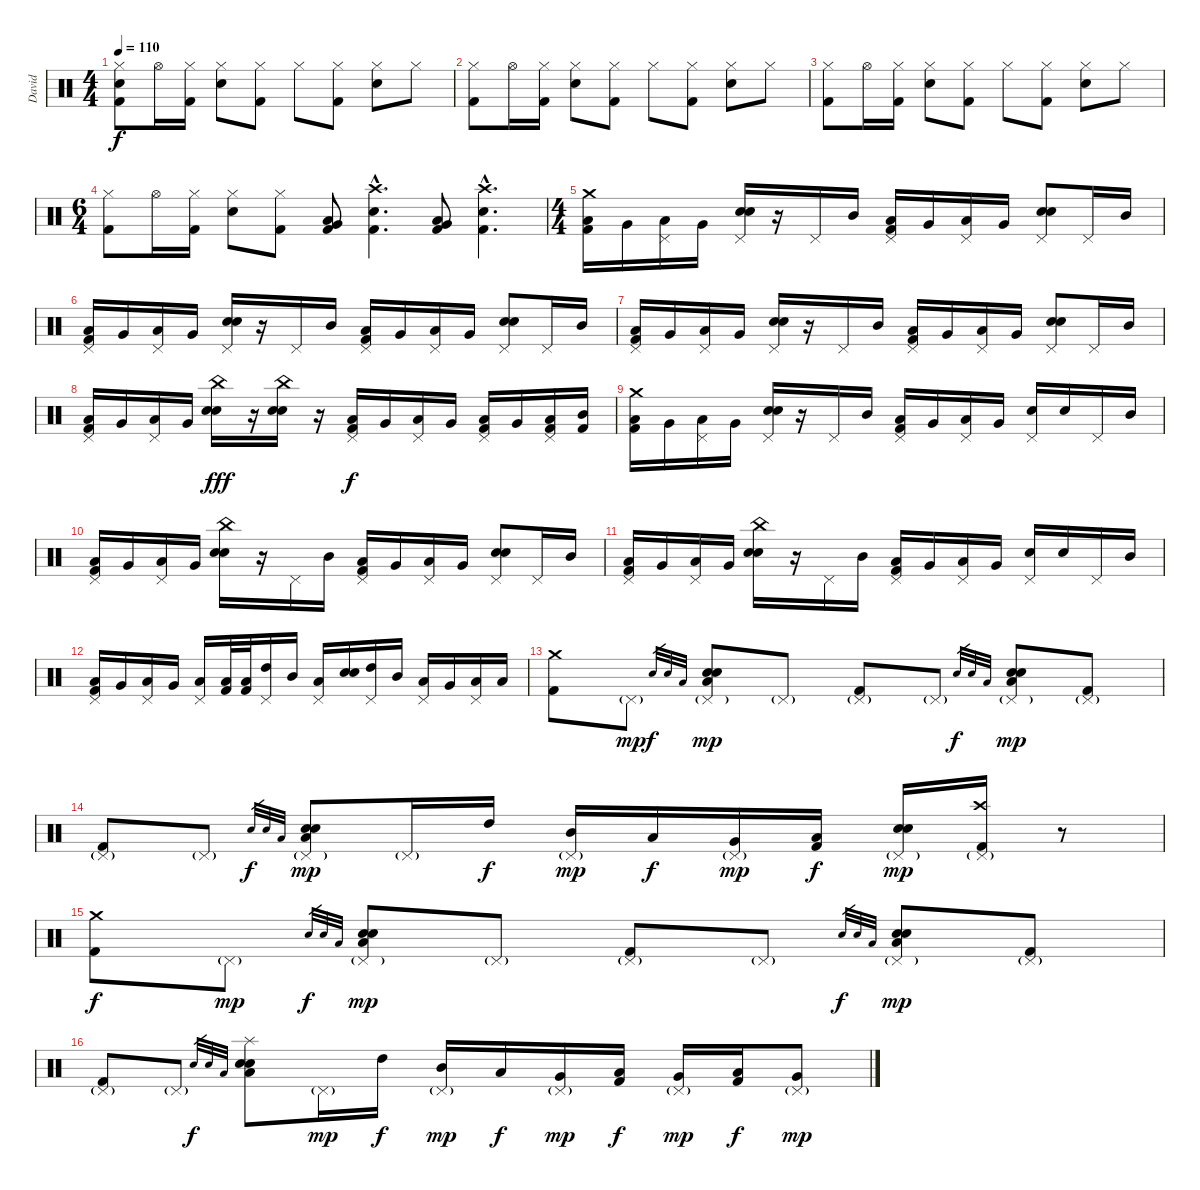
\track ("David" "David") {instrument percussion}
\staff {score}
\articulation defaults
\ts (4 4)
\tempo 110
\clef neutral
\ks c
("Hi-Hat (closed)" "Snare (hit) 2" "Kick (hit) 2").8{dy f} "Hi-Hat (open)".16 ("Hi-Hat (closed)" "Kick (hit) 2").16 ("Hi-Hat (closed)" "Snare (hit) 2").8 ("Hi-Hat (closed)" "Kick (hit) 2").8 "Hi-Hat (closed)".8 ("Hi-Hat (closed)" "Kick (hit) 2").8 ("Hi-Hat (closed)" "Snare (hit) 2").8 "Hi-Hat (closed)".8 |
("Hi-Hat (closed)" "Kick (hit) 2").8 "Hi-Hat (open)".16 ("Hi-Hat (closed)" "Kick (hit) 2").16 ("Hi-Hat (closed)" "Snare (hit) 2").8 ("Hi-Hat (closed)" "Kick (hit) 2").8 "Hi-Hat (closed)".8 ("Hi-Hat (closed)" "Kick (hit) 2").8 ("Hi-Hat (closed)" "Snare (hit) 2").8 "Hi-Hat (closed)".8 |
("Hi-Hat (closed)" "Kick (hit) 2").8 "Hi-Hat (open)".16 ("Hi-Hat (closed)" "Kick (hit) 2").16 ("Hi-Hat (closed)" "Snare (hit) 2").8 ("Hi-Hat (closed)" "Kick (hit) 2").8 "Hi-Hat (closed)".8 ("Hi-Hat (closed)" "Kick (hit) 2").8 ("Hi-Hat (closed)" "Snare (hit) 2").8 "Hi-Hat (closed)".8 |
\ts (6 4)
("Hi-Hat (closed)" "Kick (hit) 2").8 "Hi-Hat (open)".16 ("Hi-Hat (closed)" "Kick (hit) 2").16 ("Hi-Hat (closed)" "Snare (hit) 2").8 ("Hi-Hat (closed)" "Kick (hit) 2").8 ("Low Tom (hit)" "Very Low Tom (hit)" "Kick (hit) 2").8 ("Crash high (hit)"{hac} "Snare (hit) 2"{hac} "Kick (hit) 2"{hac}).4{d} ("Low Tom (hit)" "Very Low Tom (hit)" "Kick (hit) 2").8 ("Crash high (hit)"{hac} "Snare (hit) 2"{hac} "Kick (hit) 2"{hac}).4{d} |
\ts (4 4)
("Crash medium (hit)" "Low Tom (hit)" "Kick (hit) 2").16 "Very Low Tom (hit)".16 ("Pedal Hi-Hat (hit)" "Low Floor Tom (hit)").16 "Very Low Tom (hit)".16 ("Pedal Hi-Hat (hit)" "Snare (hit) 2" "Snare (hit) 2").16 r.16 "Pedal Hi-Hat (hit)".16 "Mid Tom (hit)".16 ("Pedal Hi-Hat (hit)" "Low Tom (hit)" "Kick (hit) 2").16 "Very Low Tom (hit)".16 ("Pedal Hi-Hat (hit)" "Low Floor Tom (hit)").16 "Very Low Tom (hit)".16 ("Pedal Hi-Hat (hit)" "Snare (hit) 2" "Snare (hit) 2").8 "Pedal Hi-Hat (hit)".16 "Mid Tom (hit)".16 |
("Pedal Hi-Hat (hit)" "Low Tom (hit)" "Kick (hit) 2").16 "Very Low Tom (hit)".16 ("Pedal Hi-Hat (hit)" "Low Floor Tom (hit)").16 "Very Low Tom (hit)".16 ("Pedal Hi-Hat (hit)" "Snare (hit) 2" "Snare (hit) 2").16 r.16 "Pedal Hi-Hat (hit)".16 "Mid Tom (hit)".16 ("Pedal Hi-Hat (hit)" "Low Tom (hit)" "Kick (hit) 2").16 "Very Low Tom (hit)".16 ("Pedal Hi-Hat (hit)" "Low Floor Tom (hit)").16 "Very Low Tom (hit)".16 ("Pedal Hi-Hat (hit)" "Snare (hit) 2" "Snare (hit) 2").8 "Pedal Hi-Hat (hit)".16 "Mid Tom (hit)".16 |
("Pedal Hi-Hat (hit)" "Low Tom (hit)" "Kick (hit) 2").16 "Very Low Tom (hit)".16 ("Pedal Hi-Hat (hit)" "Low Floor Tom (hit)").16 "Very Low Tom (hit)".16 ("Pedal Hi-Hat (hit)" "Snare (hit) 2" "Snare (hit) 2").16 r.16 "Pedal Hi-Hat (hit)".16 "Mid Tom (hit)".16 ("Pedal Hi-Hat (hit)" "Low Tom (hit)" "Kick (hit) 2").16 "Very Low Tom (hit)".16 ("Pedal Hi-Hat (hit)" "Low Floor Tom (hit)").16 "Very Low Tom (hit)".16 ("Pedal Hi-Hat (hit)" "Snare (hit) 2" "Snare (hit) 2").8 "Pedal Hi-Hat (hit)".16 "Mid Tom (hit)".16 |
("Pedal Hi-Hat (hit)" "Low Tom (hit)" "Kick (hit) 2").16 "Very Low Tom (hit)".16 ("Pedal Hi-Hat (hit)" "Low Floor Tom (hit)").16 "Very Low Tom (hit)".16 ("China (hit)" "Snare (hit) 2" "Snare (hit) 2").16{dy fff} r.16 ("China (hit)" "Snare (hit) 2" "Snare (hit) 2").16 r.16 ("Pedal Hi-Hat (hit)" "Low Tom (hit)" "Kick (hit) 2").16{dy f} "Very Low Tom (hit)".16 ("Pedal Hi-Hat (hit)" "Low Floor Tom (hit)").16 "Very Low Tom (hit)".16 ("Pedal Hi-Hat (hit)" "Low Floor Tom (hit)" "Kick (hit) 2").16 "Very Low Tom (hit)".16 ("Pedal Hi-Hat (hit)" "Low Tom (hit)" "Kick (hit) 2").16 ("Mid Tom (hit)" "Kick (hit) 2").16 |
("Crash medium (hit)" "Low Tom (hit)" "Kick (hit) 2").16 "Very Low Tom (hit)".16 ("Pedal Hi-Hat (hit)" "Low Floor Tom (hit)").16 "Very Low Tom (hit)".16 ("Pedal Hi-Hat (hit)" "Snare (hit) 2" "Snare (hit) 2").16 r.16 "Pedal Hi-Hat (hit)".16 "Mid Tom (hit)".16 ("Pedal Hi-Hat (hit)" "Low Tom (hit)" "Kick (hit) 2").16 "Very Low Tom (hit)".16 ("Pedal Hi-Hat (hit)" "Low Floor Tom (hit)").16 "Very Low Tom (hit)".16 ("Pedal Hi-Hat (hit)" "Snare (hit) 2").16 "Snare (hit) 2".16 "Pedal Hi-Hat (hit)".16 "Mid Tom (hit)".16 |
("Pedal Hi-Hat (hit)" "Low Tom (hit)" "Kick (hit) 2").16 "Very Low Tom (hit)".16 ("Pedal Hi-Hat (hit)" "Low Floor Tom (hit)").16 "Very Low Tom (hit)".16 ("China (hit)" "Snare (hit) 2" "Snare (hit) 2").16 r.16 "Pedal Hi-Hat (hit)".16 "Mid Tom (hit)".16 ("Pedal Hi-Hat (hit)" "Low Tom (hit)" "Kick (hit) 2").16 "Very Low Tom (hit)".16 ("Pedal Hi-Hat (hit)" "Low Floor Tom (hit)").16 "Very Low Tom (hit)".16 ("Pedal Hi-Hat (hit)" "Snare (hit) 2" "Snare (hit) 2").8 "Pedal Hi-Hat (hit)".16 "Mid Tom (hit)".16 |
("Pedal Hi-Hat (hit)" "Low Tom (hit)" "Kick (hit) 2").16 "Very Low Tom (hit)".16 ("Pedal Hi-Hat (hit)" "Low Floor Tom (hit)").16 "Very Low Tom (hit)".16 ("China (hit)" "Snare (hit) 2" "Snare (hit) 2").16 r.16 "Pedal Hi-Hat (hit)".16 "Mid Tom (hit)".16 ("Pedal Hi-Hat (hit)" "Low Tom (hit)" "Kick (hit) 2").16 "Very Low Tom (hit)".16 ("Pedal Hi-Hat (hit)" "Low Floor Tom (hit)").16 "Very Low Tom (hit)".16 ("Pedal Hi-Hat (hit)" "Snare (hit) 2").16 "Snare (hit) 2".16 "Pedal Hi-Hat (hit)".16 "Mid Tom (hit)".16 |
("Pedal Hi-Hat (hit)" "Low Tom (hit)" "Kick (hit) 2").16 "Very Low Tom (hit)".16 ("Pedal Hi-Hat (hit)" "Low Floor Tom (hit)").16 "Very Low Tom (hit)".16 ("Pedal Hi-Hat (hit)" "Low Floor Tom (hit)").16 ("Low Tom (hit)" "Kick (hit) 2").32 ("Low Tom (hit)" "Kick (hit) 2").32 ("Pedal Hi-Hat (hit)" "High Tom (hit)").16 "Mid Tom (hit)".16 ("Pedal Hi-Hat (hit)" "Low Tom (hit)").16 ("Snare (hit) 2" "Snare (hit) 2").16 ("Pedal Hi-Hat (hit)" "High Tom (hit)").16 "Mid Tom (hit)".16 ("Pedal Hi-Hat (hit)" "Low Tom (hit)").16 "Very Low Tom (hit)".16 ("Pedal Hi-Hat (hit)" "Low Floor Tom (hit)").16 "Low Floor Tom (hit)".16 |
("Crash medium (hit)" "Kick (hit) 2").8 "Pedal Hi-Hat (hit)"{g}.8{dy mp} "Snare (hit) 2".32{gr dy f} "Snare (hit) 2".32{gr} "Low Floor Tom (hit)".32{gr} ("Pedal Hi-Hat (hit)"{g} "Snare (hit) 2" "Snare (hit) 2" "Low Floor Tom (hit)").8{dy mp} "Pedal Hi-Hat (hit)"{g}.8 ("Pedal Hi-Hat (hit)"{g} "Kick (hit) 2").8 "Pedal Hi-Hat (hit)"{g}.8 "Snare (hit) 2".32{gr dy f} "Snare (hit) 2".32{gr} "Low Floor Tom (hit)".32{gr} ("Pedal Hi-Hat (hit)"{g} "Snare (hit) 2" "Snare (hit) 2" "Low Floor Tom (hit)").8{dy mp} ("Pedal Hi-Hat (hit)"{g} "Kick (hit) 2").8 |
("Pedal Hi-Hat (hit)"{g} "Kick (hit) 2").8 "Pedal Hi-Hat (hit)"{g}.8 "Snare (hit) 2".32{gr dy f} "Snare (hit) 2".32{gr} "Low Floor Tom (hit)".32{gr} ("Pedal Hi-Hat (hit)"{g} "Snare (hit) 2" "Snare (hit) 2" "Low Floor Tom (hit)").8{dy mp} "Pedal Hi-Hat (hit)"{g}.16 "High Tom (hit)".16{dy f} ("Pedal Hi-Hat (hit)"{g} "Mid Tom (hit)").16{dy mp} "Low Tom (hit)".16{dy f} ("Pedal Hi-Hat (hit)"{g} "Very Low Tom (hit)").16{dy mp} ("Low Floor Tom (hit)" "Kick (hit) 2").16{dy f} ("Pedal Hi-Hat (hit)"{g} "Snare (hit) 2" "Snare (hit) 2").16{dy mp} ("Crash high (hit)" "Pedal Hi-Hat (hit)"{g} "Kick (hit) 2").16 r.8 |
("Crash medium (hit)" "Kick (hit) 2").8{dy f} "Pedal Hi-Hat (hit)"{g}.8{dy mp} "Snare (hit) 2".32{gr dy f} "Snare (hit) 2".32{gr} "Low Floor Tom (hit)".32{gr} ("Pedal Hi-Hat (hit)"{g} "Snare (hit) 2" "Snare (hit) 2" "Low Floor Tom (hit)").8{dy mp} "Pedal Hi-Hat (hit)"{g}.8 ("Pedal Hi-Hat (hit)"{g} "Kick (hit) 2").8 "Pedal Hi-Hat (hit)"{g}.8 "Snare (hit) 2".32{gr dy f} "Snare (hit) 2".32{gr} "Low Floor Tom (hit)".32{gr} ("Pedal Hi-Hat (hit)"{g} "Snare (hit) 2" "Snare (hit) 2" "Low Floor Tom (hit)").8{dy mp} ("Pedal Hi-Hat (hit)"{g} "Kick (hit) 2").8 |
("Pedal Hi-Hat (hit)"{g} "Kick (hit) 2").8 "Pedal Hi-Hat (hit)"{g}.8 "Snare (hit) 2".32{gr dy f} "Snare (hit) 2".32{gr} "Low Floor Tom (hit)".32{gr} ("Splash (hit)" "Snare (hit) 2" "Snare (hit) 2" "Low Floor Tom (hit)").8 "Pedal Hi-Hat (hit)"{g}.16{dy mp} "High Tom (hit)".16{dy f} ("Pedal Hi-Hat (hit)"{g} "Mid Tom (hit)").16{dy mp} "Low Tom (hit)".16{dy f} ("Pedal Hi-Hat (hit)"{g} "Very Low Tom (hit)").16{dy mp} ("Low Floor Tom (hit)" "Kick (hit) 2").16{dy f} ("Pedal Hi-Hat (hit)"{g} "Very Low Tom (hit)").16{dy mp} ("Low Floor Tom (hit)" "Kick (hit) 2").16{dy f} ("Pedal Hi-Hat (hit)"{g} "Very Low Tom (hit)").8{dy mp}
